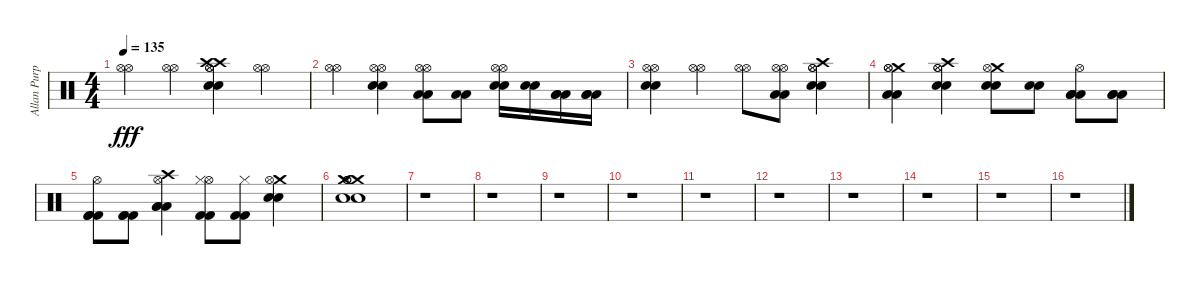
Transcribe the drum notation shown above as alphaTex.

\track ("Allan Purple" "Allan Purp") {instrument percussion}
\staff {score}
\articulation defaults
\ts (4 4)
\tempo 135
\clef neutral
\ks c
("Hi-Hat (open)" "Hi-Hat (open)").4{dy fff} ("Hi-Hat (open)" "Hi-Hat (open)").4 ("Crash high (hit)" "Crash high (hit)" "Hi-Hat (open)" "Hi-Hat (open)" "Electric Snare (hit)" "Electric Snare (hit)").4 ("Hi-Hat (open)" "Hi-Hat (open)").4 |
("Hi-Hat (open)" "Hi-Hat (open)").4 ("Hi-Hat (open)" "Hi-Hat (open)" "Electric Snare (hit)" "Electric Snare (hit)").4 ("Hi-Hat (open)" "Hi-Hat (open)" "Low Tom (hit)" "Low Tom (hit)").8 ("Low Tom (hit)" "Low Tom (hit)").8 ("Hi-Hat (open)" "Hi-Hat (open)" "Electric Snare (hit)" "Electric Snare (hit)").16 ("Electric Snare (hit)" "Electric Snare (hit)").16 ("Low Tom (hit)" "Low Tom (hit)" "Low Tom (hit)").16 ("Low Tom (hit)" "Low Tom (hit)" "Low Tom (hit)").16 |
("Hi-Hat (open)" "Hi-Hat (open)" "Electric Snare (hit)" "Electric Snare (hit)").4 ("Hi-Hat (open)" "Hi-Hat (open)").4 ("Hi-Hat (open)" "Hi-Hat (open)").8 ("Hi-Hat (open)" "Hi-Hat (open)" "Low Tom (hit)" "Low Tom (hit)").8 ("Crash high (hit)" "Hi-Hat (open)" "Hi-Hat (open)" "Electric Snare (hit)" "Electric Snare (hit)").4 |
("Crash medium (hit)" "Hi-Hat (open)" "Hi-Hat (open)" "Low Tom (hit)" "Low Tom (hit)").4 ("Crash high (hit)" "Hi-Hat (open)" "Hi-Hat (open)" "Electric Snare (hit)" "Electric Snare (hit)").4 ("Crash medium (hit)" "Hi-Hat (open)" "Electric Snare (hit)" "Electric Snare (hit)").8 ("Electric Snare (hit)" "Electric Snare (hit)").8 ("Hi-Hat (open)" "Low Tom (hit)" "Low Tom (hit)" "Low Tom (hit)").8 ("Low Tom (hit)" "Low Tom (hit)" "Low Tom (hit)").8 |
("Hi-Hat (open)" "Kick (hit) 2" "Kick (hit) 2" "Kick (hit) 2").8 ("Kick (hit) 2" "Kick (hit) 2" "Kick (hit) 2").8 ("Crash high (hit)" "Hi-Hat (open)" "Low Tom (hit)" "Low Tom (hit)" "Low Tom (hit)").4 ("Hi-Hat (open)" "Hi-Hat (closed)" "Kick (hit) 2" "Kick (hit) 2").8 ("Hi-Hat (closed)" "Kick (hit) 2" "Kick (hit) 2").8 ("Crash medium (hit)" "Hi-Hat (open)" "Electric Snare (hit)" "Electric Snare (hit)").4 |
("Crash medium (hit)" "Crash medium (hit)" "Hi-Hat (open)" "Hi-Hat (open)" "Electric Snare (hit)" "Electric Snare (hit)").1 |
r.1 |
r.1 |
r.1 |
r.1 |
r.1 |
r.1 |
r.1 |
r.1 |
r.1 |
r.1
